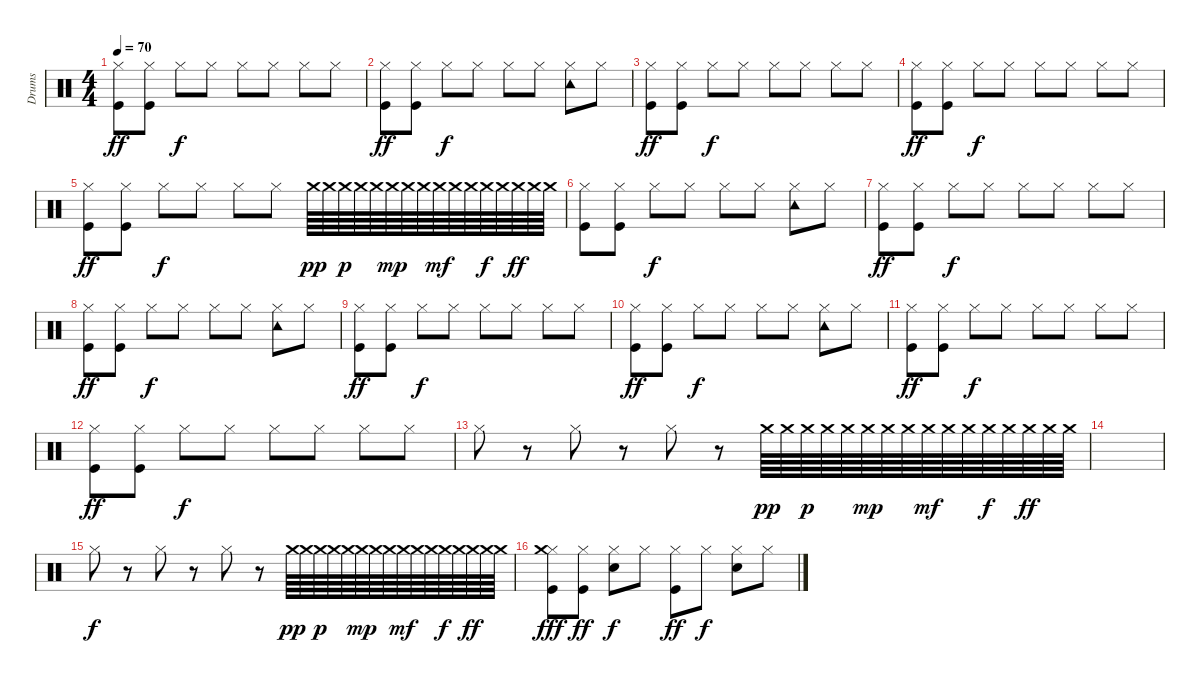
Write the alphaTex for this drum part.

\track ("Drums" "Drums") {instrument percussion}
\staff {score}
\articulation defaults
\ts (4 4)
\tempo 70
\clef neutral
\ks c
("Hi-Hat (closed)" "Kick (hit)").8{dy ff} ("Hi-Hat (closed)" "Kick (hit)").8 "Hi-Hat (closed)".8{dy f} "Hi-Hat (closed)".8 "Hi-Hat (closed)".8 "Hi-Hat (closed)".8 "Hi-Hat (closed)".8 "Hi-Hat (closed)".8 |
("Hi-Hat (closed)" "Kick (hit)").8{dy ff} ("Hi-Hat (closed)" "Kick (hit)").8 "Hi-Hat (closed)".8{dy f} "Hi-Hat (closed)".8 "Hi-Hat (closed)".8 "Hi-Hat (closed)".8 ("Hi-Hat (closed)" "Tambourine (hit)").8 "Hi-Hat (closed)".8 |
("Hi-Hat (closed)" "Kick (hit)").8{dy ff} ("Hi-Hat (closed)" "Kick (hit)").8 "Hi-Hat (closed)".8{dy f} "Hi-Hat (closed)".8 "Hi-Hat (closed)".8 "Hi-Hat (closed)".8 "Hi-Hat (closed)".8 "Hi-Hat (closed)".8 |
("Hi-Hat (closed)" "Kick (hit)").8{dy ff} ("Hi-Hat (closed)" "Kick (hit)").8 "Hi-Hat (closed)".8{dy f} "Hi-Hat (closed)".8 "Hi-Hat (closed)".8 "Hi-Hat (closed)".8 "Hi-Hat (closed)".8 "Hi-Hat (closed)".8 |
("Hi-Hat (closed)" "Kick (hit)").8{dy ff} ("Hi-Hat (closed)" "Kick (hit)").8 "Hi-Hat (closed)".8{dy f} "Hi-Hat (closed)".8 "Hi-Hat (closed)".8 "Hi-Hat (closed)".8 "Crash medium (hit)".64{dy pp} "Crash medium (hit)".64 "Crash medium (hit)".64{dy p} "Crash medium (hit)".64 "Crash medium (hit)".64 "Crash medium (hit)".64{dy mp} "Crash medium (hit)".64 "Crash medium (hit)".64 "Crash medium (hit)".64{dy mf} "Crash medium (hit)".64 "Crash medium (hit)".64 "Crash medium (hit)".64{dy f} "Crash medium (hit)".64 "Crash medium (hit)".64{dy ff} "Crash medium (hit)".64 "Crash medium (hit)".64 |
("Hi-Hat (closed)" "Kick (hit)").8 ("Hi-Hat (closed)" "Kick (hit)").8 "Hi-Hat (closed)".8{dy f} "Hi-Hat (closed)".8 "Hi-Hat (closed)".8 "Hi-Hat (closed)".8 ("Hi-Hat (closed)" "Tambourine (hit)").8 "Hi-Hat (closed)".8 |
("Hi-Hat (closed)" "Kick (hit)").8{dy ff} ("Hi-Hat (closed)" "Kick (hit)").8 "Hi-Hat (closed)".8{dy f} "Hi-Hat (closed)".8 "Hi-Hat (closed)".8 "Hi-Hat (closed)".8 "Hi-Hat (closed)".8 "Hi-Hat (closed)".8 |
("Hi-Hat (closed)" "Kick (hit)").8{dy ff} ("Hi-Hat (closed)" "Kick (hit)").8 "Hi-Hat (closed)".8{dy f} "Hi-Hat (closed)".8 "Hi-Hat (closed)".8 "Hi-Hat (closed)".8 ("Hi-Hat (closed)" "Tambourine (hit)").8 "Hi-Hat (closed)".8 |
("Hi-Hat (closed)" "Kick (hit)").8{dy ff} ("Hi-Hat (closed)" "Kick (hit)").8 "Hi-Hat (closed)".8{dy f} "Hi-Hat (closed)".8 "Hi-Hat (closed)".8 "Hi-Hat (closed)".8 "Hi-Hat (closed)".8 "Hi-Hat (closed)".8 |
("Hi-Hat (closed)" "Kick (hit)").8{dy ff} ("Hi-Hat (closed)" "Kick (hit)").8 "Hi-Hat (closed)".8{dy f} "Hi-Hat (closed)".8 "Hi-Hat (closed)".8 "Hi-Hat (closed)".8 ("Hi-Hat (closed)" "Tambourine (hit)").8 "Hi-Hat (closed)".8 |
("Hi-Hat (closed)" "Kick (hit)").8{dy ff} ("Hi-Hat (closed)" "Kick (hit)").8 "Hi-Hat (closed)".8{dy f} "Hi-Hat (closed)".8 "Hi-Hat (closed)".8 "Hi-Hat (closed)".8 "Hi-Hat (closed)".8 "Hi-Hat (closed)".8 |
("Hi-Hat (closed)" "Kick (hit)").8{dy ff} ("Hi-Hat (closed)" "Kick (hit)").8 "Hi-Hat (closed)".8{dy f} "Hi-Hat (closed)".8 "Hi-Hat (closed)".8 "Hi-Hat (closed)".8 "Hi-Hat (closed)".8 "Hi-Hat (closed)".8 |
"Hi-Hat (closed)".8 r.8 "Hi-Hat (closed)".8 r.8 "Hi-Hat (closed)".8 r.8 "Crash medium (hit)".64{dy pp} "Crash medium (hit)".64 "Crash medium (hit)".64{dy p} "Crash medium (hit)".64 "Crash medium (hit)".64 "Crash medium (hit)".64{dy mp} "Crash medium (hit)".64 "Crash medium (hit)".64 "Crash medium (hit)".64{dy mf} "Crash medium (hit)".64 "Crash medium (hit)".64 "Crash medium (hit)".64{dy f} "Crash medium (hit)".64 "Crash medium (hit)".64{dy ff} "Crash medium (hit)".64 "Crash medium (hit)".64 |
|
"Hi-Hat (closed)".8{dy f} r.8 "Hi-Hat (closed)".8 r.8 "Hi-Hat (closed)".8 r.8 "Crash medium (hit)".64{dy pp} "Crash medium (hit)".64 "Crash medium (hit)".64{dy p} "Crash medium (hit)".64 "Crash medium (hit)".64 "Crash medium (hit)".64{dy mp} "Crash medium (hit)".64 "Crash medium (hit)".64 "Crash medium (hit)".64{dy mf} "Crash medium (hit)".64 "Crash medium (hit)".64 "Crash medium (hit)".64{dy f} "Crash medium (hit)".64 "Crash medium (hit)".64{dy ff} "Crash medium (hit)".64 "Crash medium (hit)".64 |
("Hi-Hat (closed)" "Kick (hit)" "Crash medium (hit)").8{dy fff} ("Hi-Hat (closed)" "Kick (hit)").8{dy ff} ("Hi-Hat (closed)" "Snare (hit) 2").8{dy f} "Hi-Hat (closed)".8 ("Hi-Hat (closed)" "Kick (hit)").8{dy ff} "Hi-Hat (closed)".8{dy f} ("Hi-Hat (closed)" "Snare (hit) 2").8 "Hi-Hat (closed)".8
